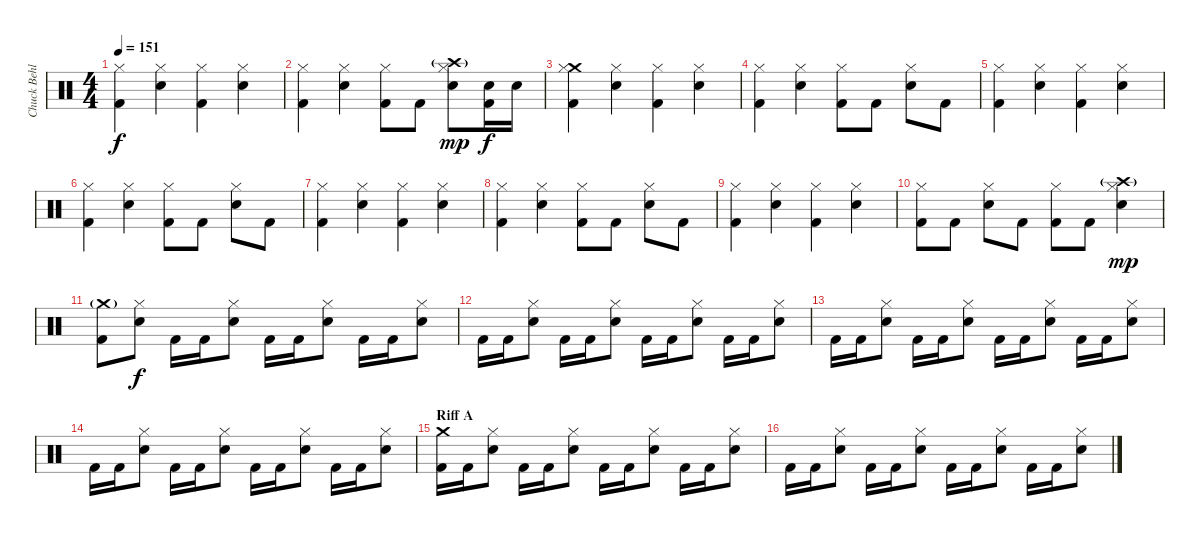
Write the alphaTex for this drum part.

\track ("Chuck Behler" "Chuck Behl") {instrument percussion}
\staff {score}
\articulation defaults
\ts (4 4)
\tempo 151
\clef neutral
\ks c
("Hi-Hat (closed)" "Kick (hit) 2").4{dy f} ("Hi-Hat (closed)" "Electric Snare (hit)").4 ("Hi-Hat (closed)" "Kick (hit) 2").4 ("Hi-Hat (closed)" "Electric Snare (hit)").4 |
("Hi-Hat (closed)" "Kick (hit) 2").4 ("Hi-Hat (closed)" "Electric Snare (hit)").4 ("Hi-Hat (closed)" "Kick (hit) 2").8 "Kick (hit) 2".8 ("Crash high (hit)"{g} "Hi-Hat (closed)" "Electric Snare (hit)").8{dy mp} ("Electric Snare (hit)" "Kick (hit) 2").16{dy f} "Electric Snare (hit)".16 |
("Crash medium (hit)" "Hi-Hat (closed)" "Kick (hit) 2").4 ("Hi-Hat (closed)" "Electric Snare (hit)").4 ("Hi-Hat (closed)" "Kick (hit) 2").4 ("Hi-Hat (closed)" "Electric Snare (hit)").4 |
("Hi-Hat (closed)" "Kick (hit) 2").4 ("Hi-Hat (closed)" "Electric Snare (hit)").4 ("Hi-Hat (closed)" "Kick (hit) 2").8 "Kick (hit) 2".8 ("Hi-Hat (closed)" "Electric Snare (hit)").8 "Kick (hit) 2".8 |
("Hi-Hat (closed)" "Kick (hit) 2").4 ("Hi-Hat (closed)" "Electric Snare (hit)").4 ("Hi-Hat (closed)" "Kick (hit) 2").4 ("Hi-Hat (closed)" "Electric Snare (hit)").4 |
("Hi-Hat (closed)" "Kick (hit) 2").4 ("Hi-Hat (closed)" "Electric Snare (hit)").4 ("Hi-Hat (closed)" "Kick (hit) 2").8 "Kick (hit) 2".8 ("Hi-Hat (closed)" "Electric Snare (hit)").8 "Kick (hit) 2".8 |
("Hi-Hat (closed)" "Kick (hit) 2").4 ("Hi-Hat (closed)" "Electric Snare (hit)").4 ("Hi-Hat (closed)" "Kick (hit) 2").4 ("Hi-Hat (closed)" "Electric Snare (hit)").4 |
("Hi-Hat (closed)" "Kick (hit) 2").4 ("Hi-Hat (closed)" "Electric Snare (hit)").4 ("Hi-Hat (closed)" "Kick (hit) 2").8 "Kick (hit) 2".8 ("Hi-Hat (closed)" "Electric Snare (hit)").8 "Kick (hit) 2".8 |
("Hi-Hat (closed)" "Kick (hit) 2").4 ("Hi-Hat (closed)" "Electric Snare (hit)").4 ("Hi-Hat (closed)" "Kick (hit) 2").4 ("Hi-Hat (closed)" "Electric Snare (hit)").4 |
("Hi-Hat (closed)" "Kick (hit) 2").8 "Kick (hit) 2".8 ("Hi-Hat (closed)" "Electric Snare (hit)").8 "Kick (hit) 2".8 ("Hi-Hat (closed)" "Kick (hit) 2").8 "Kick (hit) 2".8 ("Crash high (hit)"{g} "Hi-Hat (closed)" "Electric Snare (hit)").4{dy mp} |
("Crash medium (hit)"{g} "Kick (hit) 2").8 ("Hi-Hat (closed)" "Electric Snare (hit)").8{dy f} "Kick (hit) 2".16 "Kick (hit) 2".16 ("Hi-Hat (closed)" "Electric Snare (hit)").8 "Kick (hit) 2".16 "Kick (hit) 2".16 ("Hi-Hat (closed)" "Electric Snare (hit)").8 "Kick (hit) 2".16 "Kick (hit) 2".16 ("Hi-Hat (closed)" "Electric Snare (hit)").8 |
"Kick (hit) 2".16 "Kick (hit) 2".16 ("Hi-Hat (closed)" "Electric Snare (hit)").8 "Kick (hit) 2".16 "Kick (hit) 2".16 ("Hi-Hat (closed)" "Electric Snare (hit)").8 "Kick (hit) 2".16 "Kick (hit) 2".16 ("Hi-Hat (closed)" "Electric Snare (hit)").8 "Kick (hit) 2".16 "Kick (hit) 2".16 ("Hi-Hat (closed)" "Electric Snare (hit)").8 |
"Kick (hit) 2".16 "Kick (hit) 2".16 ("Hi-Hat (closed)" "Electric Snare (hit)").8 "Kick (hit) 2".16 "Kick (hit) 2".16 ("Hi-Hat (closed)" "Electric Snare (hit)").8 "Kick (hit) 2".16 "Kick (hit) 2".16 ("Hi-Hat (closed)" "Electric Snare (hit)").8 "Kick (hit) 2".16 "Kick (hit) 2".16 ("Hi-Hat (closed)" "Electric Snare (hit)").8 |
"Kick (hit) 2".16 "Kick (hit) 2".16 ("Hi-Hat (closed)" "Electric Snare (hit)").8 "Kick (hit) 2".16 "Kick (hit) 2".16 ("Hi-Hat (closed)" "Electric Snare (hit)").8 "Kick (hit) 2".16 "Kick (hit) 2".16 ("Hi-Hat (closed)" "Electric Snare (hit)").8 "Kick (hit) 2".16 "Kick (hit) 2".16 ("Hi-Hat (closed)" "Electric Snare (hit)").8 |
\section ("" "Riff A")
("Crash medium (hit)" "Kick (hit) 2").16 "Kick (hit) 2".16 ("Hi-Hat (closed)" "Electric Snare (hit)").8 "Kick (hit) 2".16 "Kick (hit) 2".16 ("Hi-Hat (closed)" "Electric Snare (hit)").8 "Kick (hit) 2".16 "Kick (hit) 2".16 ("Hi-Hat (closed)" "Electric Snare (hit)").8 "Kick (hit) 2".16 "Kick (hit) 2".16 ("Hi-Hat (closed)" "Electric Snare (hit)").8 |
"Kick (hit) 2".16 "Kick (hit) 2".16 ("Hi-Hat (closed)" "Electric Snare (hit)").8 "Kick (hit) 2".16 "Kick (hit) 2".16 ("Hi-Hat (closed)" "Electric Snare (hit)").8 "Kick (hit) 2".16 "Kick (hit) 2".16 ("Hi-Hat (closed)" "Electric Snare (hit)").8 "Kick (hit) 2".16 "Kick (hit) 2".16 ("Hi-Hat (closed)" "Electric Snare (hit)").8
